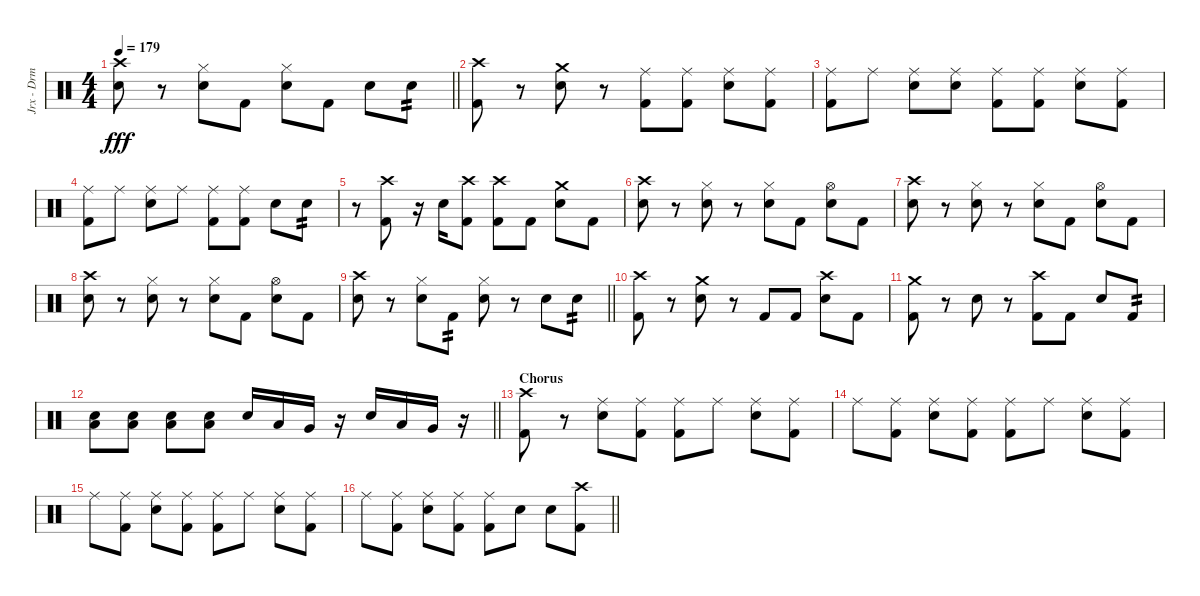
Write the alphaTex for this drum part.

\track ("Jrx - Drm" "Jrx - Drm") {instrument percussion}
\staff {score}
\articulation defaults
\ts (4 4)
\tempo 179
\clef neutral
\barLineRight lightlight
\ks c
("Snare (hit) 2" "Crash high (hit)").8{dy fff} r.8 ("Hi-Hat (closed)" "Snare (hit) 2").8 "Kick (hit) 2".8 ("Hi-Hat (closed)" "Snare (hit) 2").8 "Kick (hit) 2".8 "Snare (hit) 2".8 "Snare (hit) 2".8{tp 2} |
("Kick (hit) 2" "Crash high (hit)").8 r.8 ("Snare (hit) 2" "Crash medium (hit)").8 r.8 ("Kick (hit) 2" "Ride (middle)").8 ("Kick (hit) 2" "Ride (middle)").8 ("Snare (hit) 2" "Ride (middle)").8 ("Kick (hit) 2" "Ride (middle)").8 |
("Kick (hit) 2" "Ride (middle)").8 "Ride (middle)".8 ("Snare (hit) 2" "Ride (middle)").8 ("Snare (hit) 2" "Ride (middle)").8 ("Kick (hit) 2" "Ride (middle)").8 ("Kick (hit) 2" "Ride (middle)").8 ("Snare (hit) 2" "Ride (middle)").8 ("Kick (hit) 2" "Ride (middle)").8 |
("Kick (hit) 2" "Ride (middle)").8 "Ride (middle)".8 ("Snare (hit) 2" "Ride (middle)").8 "Ride (middle)".8 ("Kick (hit) 2" "Ride (middle)").8 ("Kick (hit) 2" "Ride (middle)").8 "Snare (hit) 2".8 "Snare (hit) 2".8{tp 2} |
r.8 ("Kick (hit) 2" "Crash high (hit)").8 r.16 "Snare (hit) 2".16 ("Kick (hit) 2" "Crash high (hit)").8 ("Kick (hit) 2" "Crash high (hit)").8 "Kick (hit) 2".8 ("Snare (hit) 2" "Crash medium (hit)").8 "Kick (hit) 2".8 |
("Snare (hit) 2" "Crash high (hit)").8 r.8 ("Hi-Hat (closed)" "Snare (hit) 2").8 r.8 ("Hi-Hat (closed)" "Snare (hit) 2").8 "Kick (hit) 2".8 ("Hi-Hat (open)" "Snare (hit) 2").8 "Kick (hit) 2".8 |
("Snare (hit) 2" "Crash high (hit)").8 r.8 ("Hi-Hat (closed)" "Snare (hit) 2").8 r.8 ("Hi-Hat (closed)" "Snare (hit) 2").8 "Kick (hit) 2".8 ("Hi-Hat (open)" "Snare (hit) 2").8 "Kick (hit) 2".8 |
("Snare (hit) 2" "Crash high (hit)").8 r.8 ("Hi-Hat (closed)" "Snare (hit) 2").8 r.8 ("Hi-Hat (closed)" "Snare (hit) 2").8 "Kick (hit) 2".8 ("Hi-Hat (open)" "Snare (hit) 2").8 "Kick (hit) 2".8 |
\barLineRight lightlight
("Snare (hit) 2" "Crash high (hit)").8 r.8 ("Hi-Hat (closed)" "Snare (hit) 2").8 "Kick (hit) 2".8{tp 2} ("Hi-Hat (closed)" "Snare (hit) 2").8 r.8 "Snare (hit) 2".8 "Snare (hit) 2".8{tp 2} |
("Kick (hit) 2" "Crash high (hit)").8 r.8 ("Snare (hit) 2" "Crash medium (hit)").8 r.8 "Kick (hit) 2".8 "Kick (hit) 2".8 ("Snare (hit) 2" "Crash high (hit)").8 "Kick (hit) 2".8 |
("Kick (hit) 2" "Crash medium (hit)").8 r.8 "Snare (hit) 2".8 r.8 ("Kick (hit) 2" "Crash high (hit)").8 "Kick (hit) 2".8 "Snare (hit) 2".8 "Kick (hit) 2".8{tp 2} |
\barLineRight lightlight
("Snare (hit) 2" "Low Floor Tom (hit)").8 ("Snare (hit) 2" "Low Floor Tom (hit)").8 ("Snare (hit) 2" "Low Floor Tom (hit)").8 ("Snare (hit) 2" "Low Floor Tom (hit)").8 "Snare (hit) 2".16 "Low Tom (hit)".16 "Very Low Tom (hit)".16 r.16 "Snare (hit) 2".16 "Low Tom (hit)".16 "Very Low Tom (hit)".16 r.16 |
\section ("" "Chorus")
("Kick (hit) 2" "Crash high (hit)").8 r.8 ("Snare (hit) 2" "Ride (middle)").8 ("Kick (hit) 2" "Ride (middle)").8 ("Kick (hit) 2" "Ride (middle)").8 "Ride (middle)".8 ("Snare (hit) 2" "Ride (middle)").8 ("Kick (hit) 2" "Ride (middle)").8 |
"Ride (middle)".8 ("Kick (hit) 2" "Ride (middle)").8 ("Snare (hit) 2" "Ride (middle)").8 ("Kick (hit) 2" "Ride (middle)").8 ("Kick (hit) 2" "Ride (middle)").8 "Ride (middle)".8 ("Snare (hit) 2" "Ride (middle)").8 ("Kick (hit) 2" "Ride (middle)").8 |
"Ride (middle)".8 ("Kick (hit) 2" "Ride (middle)").8 ("Snare (hit) 2" "Ride (middle)").8 ("Kick (hit) 2" "Ride (middle)").8 ("Kick (hit) 2" "Ride (middle)").8 "Ride (middle)".8 ("Snare (hit) 2" "Ride (middle)").8 ("Kick (hit) 2" "Ride (middle)").8 |
\barLineRight lightlight "Ride (middle)".8
("Kick (hit) 2" "Ride (middle)").8 ("Snare (hit) 2" "Ride (middle)").8 ("Kick (hit) 2" "Ride (middle)").8 ("Kick (hit) 2" "Ride (middle)").8 "Snare (hit) 2".8 "Snare (hit) 2".8 ("Kick (hit) 2" "Crash high (hit)").8
